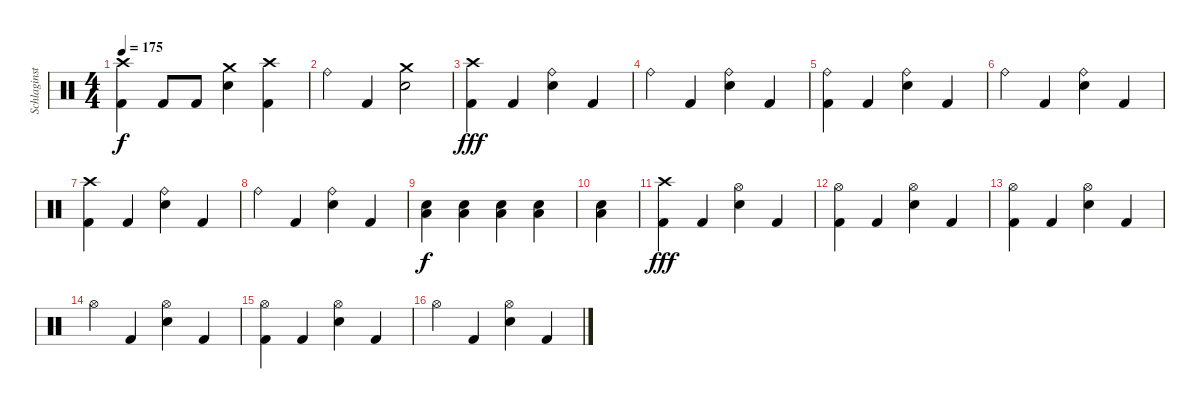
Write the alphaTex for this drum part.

\track ("Schlaginstrumente - Auswahl" "Schlaginst") {instrument percussion}
\staff {score}
\articulation defaults
\ts (4 4)
\tempo 175
\clef neutral
\ks c
("Crash high (hit)" "Kick (hit) 2").4{dy f} "Kick (hit) 2".8 "Kick (hit) 2".8 ("Crash medium (hit)" "Electric Snare (hit)").4 ("Crash high (hit)" "Kick (hit) 2").4 |
"Ride (bell)".4 "Kick (hit) 2".4 ("Electric Snare (hit)" "Crash medium (hit)").2 |
("Crash high (hit)" "Kick (hit) 2").4{dy fff} "Kick (hit) 2".4 ("Ride (bell)" "Electric Snare (hit)").4 "Kick (hit) 2".4 |
"Ride (bell)".4 "Kick (hit) 2".4 ("Ride (bell)" "Electric Snare (hit)").4 "Kick (hit) 2".4 |
("Ride (bell)" "Kick (hit) 2").4 "Kick (hit) 2".4 ("Ride (bell)" "Electric Snare (hit)").4 "Kick (hit) 2".4 |
"Ride (bell)".4 "Kick (hit) 2".4 ("Ride (bell)" "Electric Snare (hit)").4 "Kick (hit) 2".4 |
("Crash high (hit)" "Kick (hit) 2").4 "Kick (hit) 2".4 ("Ride (bell)" "Electric Snare (hit)").4 "Kick (hit) 2".4 |
"Ride (bell)".4 "Kick (hit) 2".4 ("Ride (bell)" "Electric Snare (hit)").4 "Kick (hit) 2".4 |
("Electric Snare (hit)" "Low Floor Tom (hit)").4{dy f} ("Electric Snare (hit)" "Low Floor Tom (hit)").4 ("Electric Snare (hit)" "Low Floor Tom (hit)").4 ("Electric Snare (hit)" "Low Floor Tom (hit)").4 |
("Electric Snare (hit)" "Low Floor Tom (hit)").4 |
("Crash high (hit)" "Kick (hit) 2").4{dy fff} "Kick (hit) 2".4 ("Hi-Hat (open)" "Electric Snare (hit)").4 "Kick (hit) 2".4 |
("Hi-Hat (open)" "Kick (hit) 2").4 "Kick (hit) 2".4 ("Hi-Hat (open)" "Electric Snare (hit)").4 "Kick (hit) 2".4 |
("Hi-Hat (open)" "Kick (hit) 2").4 "Kick (hit) 2".4 ("Hi-Hat (open)" "Electric Snare (hit)").4 "Kick (hit) 2".4 |
"Hi-Hat (open)".4 "Kick (hit) 2".4 ("Hi-Hat (open)" "Electric Snare (hit)").4 "Kick (hit) 2".4 |
("Hi-Hat (open)" "Kick (hit) 2").4 "Kick (hit) 2".4 ("Hi-Hat (open)" "Electric Snare (hit)").4 "Kick (hit) 2".4 |
"Hi-Hat (open)".4 "Kick (hit) 2".4 ("Hi-Hat (open)" "Electric Snare (hit)").4 "Kick (hit) 2".4
